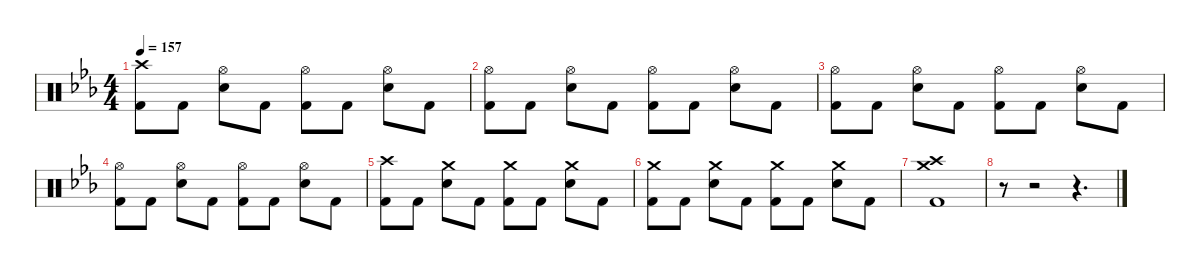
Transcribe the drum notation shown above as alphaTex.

\defaultSystemsLayout 4
\hideDynamics
\bracketExtendMode nobrackets
\singleTrackTrackNamePolicy hidden
\multiTrackTrackNamePolicy hidden
\firstSystemTrackNameMode fullname
\firstSystemTrackNameOrientation horizontal
\otherSystemsTrackNameOrientation horizontal
\track ("Drums" "drm.") {instrument percussion}
\staff {score}
\articulation defaults
\ts (4 4)
\tempo 157
\clef neutral
\ks cminor
("Crash high (hit)"{acc forcenatural} "Kick (hit) 2"{acc forcenatural}).8{dy f beam Down} "Kick (hit) 2"{acc forcenatural}.8{beam Down} ("Hi-Hat (open)"{acc forcenatural} "Snare (hit) 2"{acc forcenatural}).8{beam Down} "Kick (hit) 2"{acc forcenatural}.8{beam Down} ("Hi-Hat (open)"{acc forcenatural} "Kick (hit) 2"{acc forcenatural}).8{beam Down} "Kick (hit) 2"{acc forcenatural}.8{beam Down} ("Hi-Hat (open)"{acc forcenatural} "Snare (hit) 2"{acc forcenatural}).8{beam Down} "Kick (hit) 2"{acc forcenatural}.8{beam Down} |
("Hi-Hat (open)"{acc forcenatural} "Kick (hit) 2"{acc forcenatural}).8{beam Down} "Kick (hit) 2"{acc forcenatural}.8{beam Down} ("Hi-Hat (open)"{acc forcenatural} "Snare (hit) 2"{acc forcenatural}).8{beam Down} "Kick (hit) 2"{acc forcenatural}.8{beam Down} ("Hi-Hat (open)"{acc forcenatural} "Kick (hit) 2"{acc forcenatural}).8{beam Down} "Kick (hit) 2"{acc forcenatural}.8{beam Down} ("Hi-Hat (open)"{acc forcenatural} "Snare (hit) 2"{acc forcenatural}).8{beam Down} "Kick (hit) 2"{acc forcenatural}.8{beam Down} |
("Hi-Hat (open)"{acc forcenatural} "Kick (hit) 2"{acc forcenatural}).8{beam Down} "Kick (hit) 2"{acc forcenatural}.8{beam Down} ("Hi-Hat (open)"{acc forcenatural} "Snare (hit) 2"{acc forcenatural}).8{beam Down} "Kick (hit) 2"{acc forcenatural}.8{beam Down} ("Hi-Hat (open)"{acc forcenatural} "Kick (hit) 2"{acc forcenatural}).8{beam Down} "Kick (hit) 2"{acc forcenatural}.8{beam Down} ("Hi-Hat (open)"{acc forcenatural} "Snare (hit) 2"{acc forcenatural}).8{beam Down} "Kick (hit) 2"{acc forcenatural}.8{beam Down} |
("Hi-Hat (open)"{acc forcenatural} "Kick (hit) 2"{acc forcenatural}).8{beam Down} "Kick (hit) 2"{acc forcenatural}.8{beam Down} ("Hi-Hat (open)"{acc forcenatural} "Snare (hit) 2"{acc forcenatural}).8{beam Down} "Kick (hit) 2"{acc forcenatural}.8{beam Down} ("Hi-Hat (open)"{acc forcenatural} "Kick (hit) 2"{acc forcenatural}).8{beam Down} "Kick (hit) 2"{acc forcenatural}.8{beam Down} ("Hi-Hat (open)"{acc forcenatural} "Snare (hit) 2"{acc forcenatural}).8{beam Down} "Kick (hit) 2"{acc forcenatural}.8{beam Down} |
("Crash high (hit)"{acc forcenatural} "Kick (hit) 2"{acc forcenatural}).8{beam Down} "Kick (hit) 2"{acc forcenatural}.8{beam Down} ("Crash medium (hit)"{acc forcenatural} "Snare (hit) 2"{acc forcenatural}).8{beam Down} "Kick (hit) 2"{acc forcenatural}.8{beam Down} ("Crash medium (hit)"{acc forcenatural} "Kick (hit) 2"{acc forcenatural}).8{beam Down} "Kick (hit) 2"{acc forcenatural}.8{beam Down} ("Crash medium (hit)"{acc forcenatural} "Snare (hit) 2"{acc forcenatural}).8{beam Down} "Kick (hit) 2"{acc forcenatural}.8{beam Down} |
("Crash medium (hit)"{acc forcenatural} "Kick (hit) 2"{acc forcenatural}).8{beam Down} "Kick (hit) 2"{acc forcenatural}.8{beam Down} ("Crash medium (hit)"{acc forcenatural} "Snare (hit) 2"{acc forcenatural}).8{beam Down} "Kick (hit) 2"{acc forcenatural}.8{beam Down} ("Crash medium (hit)"{acc forcenatural} "Kick (hit) 2"{acc forcenatural}).8{beam Down} "Kick (hit) 2"{acc forcenatural}.8{beam Down} ("Crash medium (hit)"{acc forcenatural} "Snare (hit) 2"{acc forcenatural}).8{beam Down} "Kick (hit) 2"{acc forcenatural}.8{beam Down} |
("Crash medium (hit)"{acc forcenatural} "Crash high (hit)"{acc forcenatural} "Kick (hit) 2"{acc forcenatural}).1{beam Down} |
r.8{beam Down} r.2{beam Down} r.4{d beam Down}
